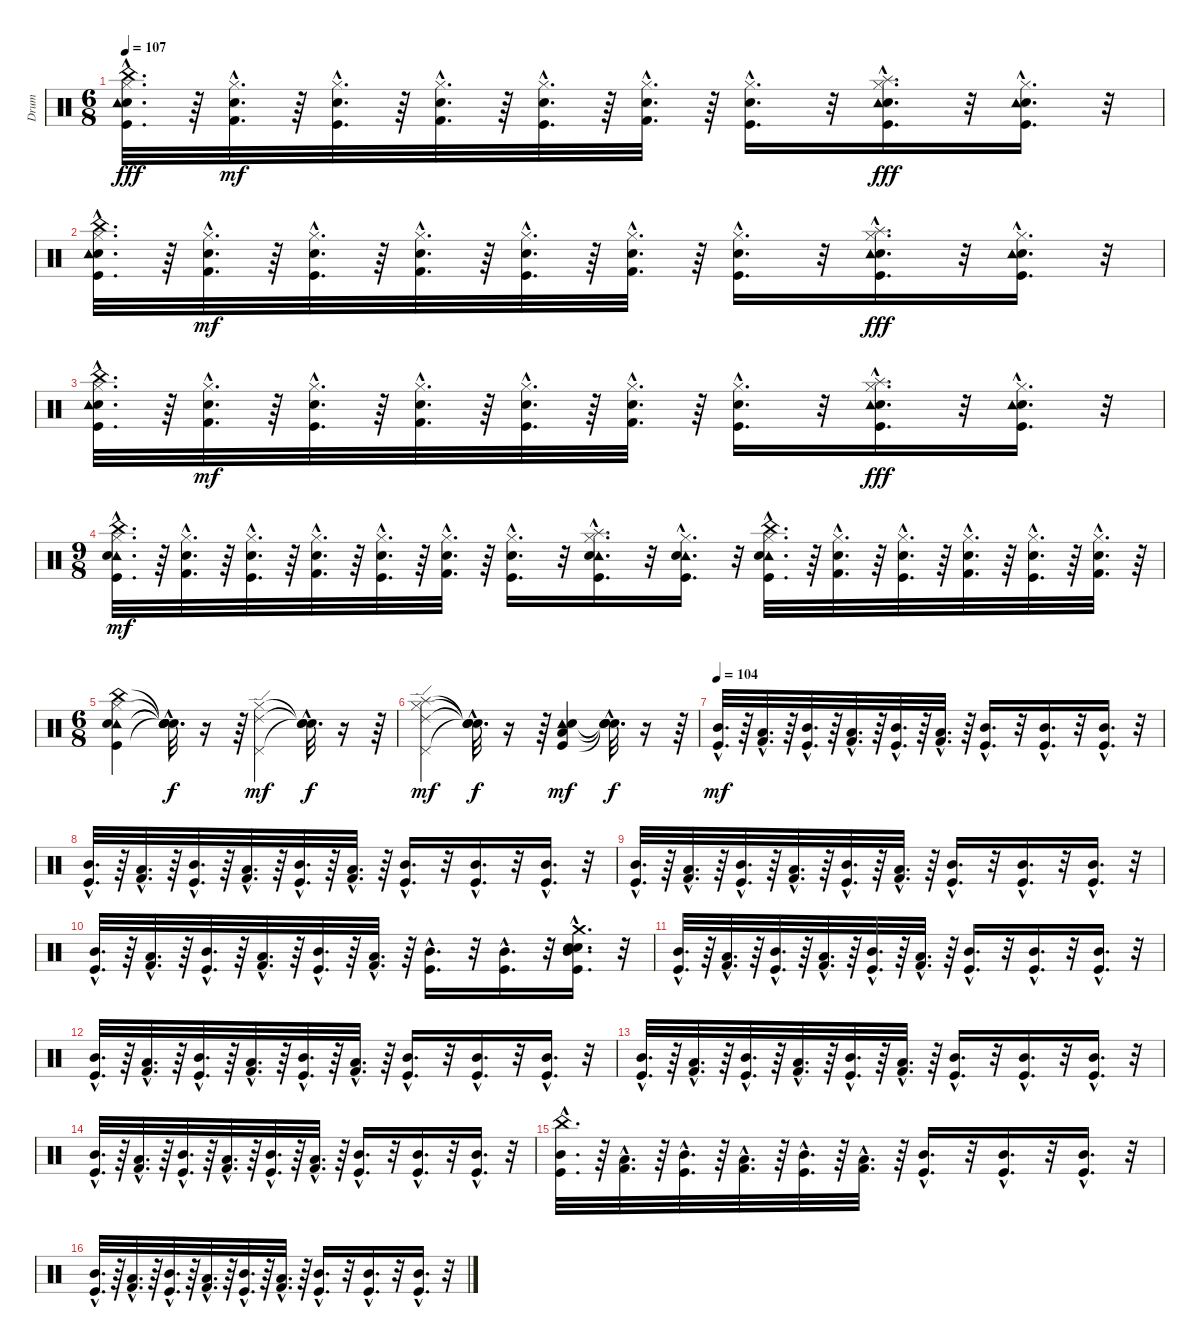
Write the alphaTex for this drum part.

\track ("Drum" "Drum") {instrument percussion}
\staff {score}
\articulation defaults
\ts (6 8)
\tempo 107
\clef neutral
\ks c
("China (hit)"{hac} "Hi-Hat (closed)"{hac} "Kick (hit)"{hac} "Snare (hit) 2"{hac} "Tambourine (hit)"{hac}).32{d dy fff} r.64 ("Hi-Hat (closed)"{hac} "Kick (hit) 2"{hac} "Electric Snare (hit)"{hac}).32{d dy mf} r.64 ("Hi-Hat (closed)"{hac} "Kick (hit)"{hac} "Snare (hit) 2"{hac}).32{d} r.64 ("Hi-Hat (closed)"{hac} "Kick (hit) 2"{hac} "Electric Snare (hit)"{hac}).32{d} r.64 ("Hi-Hat (closed)"{hac} "Kick (hit)"{hac} "Snare (hit) 2"{hac}).32{d} r.64 ("Hi-Hat (closed)"{hac} "Kick (hit) 2"{hac} "Electric Snare (hit)"{hac}).32{d} r.64 ("Hi-Hat (closed)"{hac} "Kick (hit)"{hac} "Snare (hit) 2"{hac}).16{d} r.32 ("Hi-Hat (closed)"{hac} "Kick (hit)"{hac} "Splash (hit)"{hac} "Snare (hit) 2"{hac} "Tambourine (hit)"{hac}).16{d dy fff} r.32 ("Hi-Hat (closed)"{hac} "Kick (hit)"{hac} "Snare (hit) 2"{hac} "Tambourine (hit)"{hac}).16{d} r.32 |
("China (hit)"{hac} "Hi-Hat (closed)"{hac} "Kick (hit)"{hac} "Snare (hit) 2"{hac} "Tambourine (hit)"{hac}).32{d} r.64 ("Hi-Hat (closed)"{hac} "Kick (hit) 2"{hac} "Electric Snare (hit)"{hac}).32{d dy mf} r.64 ("Hi-Hat (closed)"{hac} "Kick (hit)"{hac} "Snare (hit) 2"{hac}).32{d} r.64 ("Hi-Hat (closed)"{hac} "Kick (hit) 2"{hac} "Electric Snare (hit)"{hac}).32{d} r.64 ("Hi-Hat (closed)"{hac} "Kick (hit)"{hac} "Snare (hit) 2"{hac}).32{d} r.64 ("Hi-Hat (closed)"{hac} "Kick (hit) 2"{hac} "Electric Snare (hit)"{hac}).32{d} r.64 ("Hi-Hat (closed)"{hac} "Kick (hit)"{hac} "Snare (hit) 2"{hac}).16{d} r.32 ("Hi-Hat (closed)"{hac} "Kick (hit)"{hac} "Splash (hit)"{hac} "Snare (hit) 2"{hac} "Tambourine (hit)"{hac}).16{d dy fff} r.32 ("Hi-Hat (closed)"{hac} "Kick (hit)"{hac} "Snare (hit) 2"{hac} "Tambourine (hit)"{hac}).16{d} r.32 |
("China (hit)"{hac} "Hi-Hat (closed)"{hac} "Kick (hit)"{hac} "Snare (hit) 2"{hac} "Tambourine (hit)"{hac}).32{d} r.64 ("Hi-Hat (closed)"{hac} "Kick (hit) 2"{hac} "Electric Snare (hit)"{hac}).32{d dy mf} r.64 ("Hi-Hat (closed)"{hac} "Kick (hit)"{hac} "Snare (hit) 2"{hac}).32{d} r.64 ("Hi-Hat (closed)"{hac} "Kick (hit) 2"{hac} "Electric Snare (hit)"{hac}).32{d} r.64 ("Hi-Hat (closed)"{hac} "Kick (hit)"{hac} "Snare (hit) 2"{hac}).32{d} r.64 ("Hi-Hat (closed)"{hac} "Kick (hit) 2"{hac} "Electric Snare (hit)"{hac}).32{d} r.64 ("Hi-Hat (closed)"{hac} "Kick (hit)"{hac} "Snare (hit) 2"{hac}).16{d} r.32 ("Hi-Hat (closed)"{hac} "Kick (hit)"{hac} "Splash (hit)"{hac} "Snare (hit) 2"{hac} "Tambourine (hit)"{hac}).16{d dy fff} r.32 ("Hi-Hat (closed)"{hac} "Kick (hit)"{hac} "Snare (hit) 2"{hac} "Tambourine (hit)"{hac}).16{d} r.32 |
\ts (9 8)
("Tambourine (hit)"{hac} "Snare (hit) 2"{hac} "China (hit)"{hac} "Kick (hit)"{hac} "Hi-Hat (closed)"{hac}).32{d dy mf} r.64 ("Kick (hit) 2"{hac} "Hi-Hat (closed)"{hac} "Electric Snare (hit)"{hac}).32{d} r.64 ("Snare (hit) 2"{hac} "Kick (hit)"{hac} "Hi-Hat (closed)"{hac}).32{d} r.64 ("Electric Snare (hit)"{hac} "Kick (hit) 2"{hac} "Hi-Hat (closed)"{hac}).32{d} r.64 ("Hi-Hat (closed)"{hac} "Kick (hit)"{hac} "Snare (hit) 2"{hac}).32{d} r.64 ("Electric Snare (hit)"{hac} "Kick (hit) 2"{hac} "Hi-Hat (closed)"{hac}).32{d} r.64 ("Snare (hit) 2"{hac} "Hi-Hat (closed)"{hac} "Kick (hit)"{hac}).16{d} r.32 ("Tambourine (hit)"{hac} "Snare (hit) 2"{hac} "Splash (hit)"{hac} "Kick (hit)"{hac} "Hi-Hat (closed)"{hac}).16{d} r.32 ("Tambourine (hit)"{hac} "Snare (hit) 2"{hac} "Kick (hit)"{hac} "Hi-Hat (closed)"{hac}).16{d} r.32 ("China (hit)"{hac} "Hi-Hat (closed)"{hac} "Tambourine (hit)"{hac} "Kick (hit)"{hac} "Snare (hit) 2"{hac}).32{d} r.64 ("Electric Snare (hit)"{hac} "Kick (hit) 2"{hac} "Hi-Hat (closed)"{hac}).32{d} r.64 ("Snare (hit) 2"{hac} "Kick (hit)"{hac} "Hi-Hat (closed)"{hac}).32{d} r.64 ("Electric Snare (hit)"{hac} "Kick (hit) 2"{hac} "Hi-Hat (closed)"{hac}).32{d} r.64 ("Hi-Hat (closed)"{hac} "Kick (hit)"{hac} "Snare (hit) 2"{hac}).32{d} r.64 ("Hi-Hat (closed)"{hac} "Kick (hit) 2"{hac} "Electric Snare (hit)"{hac}).32{d} r.64 |
\ts (6 8)
("Tambourine (hit)" "China (hit)" "Hi-Hat (closed)" "Snare (hit) 2" "Kick (hit)").4 ("Snare (hit)"{hac t} "Snare (hit)"{hac t} "Snare (hit)"{hac t} "Snare (hit)"{hac t} "Snare (hit)"{hac t}).32{d dy f} r.16 r.64 ("Ride (edge) 2" "Pedal Hi-Hat (hit)" "Hi-Hat (closed)").4{dy mf} ("Snare (hit)"{hac t} "Snare (hit)"{hac t} "Snare (hit)"{hac t}).32{d dy f} r.16 r.64 |
("Ride (edge) 2" "Pedal Hi-Hat (hit)" "Hi-Hat (closed)" "Splash (hit)").4{dy mf} ("Snare (hit)"{hac t} "Snare (hit)"{hac t} "Snare (hit)"{hac t} "Snare (hit)"{hac t}).32{d dy f} r.16 r.64 ("Kick (hit)" "Low Tom (hit)" "Tambourine (hit)" "Snare (hit) 2").4{dy mf} ("Snare (hit)"{hac t} "Snare (hit)"{hac t} "Snare (hit)"{hac t} "Snare (hit)"{hac t}).32{d dy f} r.16 r.64 |
\tempo 104
("Mid Tom (hit)"{hac} "Kick (hit)"{hac}).32{d dy mf} r.64 ("Low Tom (hit)"{hac} "Kick (hit) 2"{hac}).32{d} r.64 ("Mid Tom (hit)"{hac} "Kick (hit)"{hac}).32{d} r.64 ("Low Tom (hit)"{hac} "Kick (hit) 2"{hac}).32{d} r.64 ("Mid Tom (hit)"{hac} "Kick (hit)"{hac}).32{d} r.64 ("Low Tom (hit)"{hac} "Kick (hit) 2"{hac}).32{d} r.64 ("Mid Tom (hit)"{hac} "Kick (hit)"{hac}).16{d} r.32 ("Mid Tom (hit)"{hac} "Kick (hit)"{hac}).16{d} r.32 ("Mid Tom (hit)"{hac} "Kick (hit)"{hac}).16{d} r.32 |
("Kick (hit)"{hac} "Mid Tom (hit)"{hac}).32{d} r.64 ("Kick (hit) 2"{hac} "Low Tom (hit)"{hac}).32{d} r.64 ("Kick (hit)"{hac} "Mid Tom (hit)"{hac}).32{d} r.64 ("Kick (hit) 2"{hac} "Low Tom (hit)"{hac}).32{d} r.64 ("Kick (hit)"{hac} "Mid Tom (hit)"{hac}).32{d} r.64 ("Kick (hit) 2"{hac} "Low Tom (hit)"{hac}).32{d} r.64 ("Kick (hit)"{hac} "Mid Tom (hit)"{hac}).16{d} r.32 ("Kick (hit)"{hac} "Mid Tom (hit)"{hac}).16{d} r.32 ("Kick (hit)"{hac} "Mid Tom (hit)"{hac}).16{d} r.32 |
("Mid Tom (hit)"{hac} "Kick (hit)"{hac}).32{d} r.64 ("Low Tom (hit)"{hac} "Kick (hit) 2"{hac}).32{d} r.64 ("Mid Tom (hit)"{hac} "Kick (hit)"{hac}).32{d} r.64 ("Low Tom (hit)"{hac} "Kick (hit) 2"{hac}).32{d} r.64 ("Mid Tom (hit)"{hac} "Kick (hit)"{hac}).32{d} r.64 ("Low Tom (hit)"{hac} "Kick (hit) 2"{hac}).32{d} r.64 ("Mid Tom (hit)"{hac} "Kick (hit)"{hac}).16{d} r.32 ("Mid Tom (hit)"{hac} "Kick (hit)"{hac}).16{d} r.32 ("Mid Tom (hit)"{hac} "Kick (hit)"{hac}).16{d} r.32 |
("Mid Tom (hit)"{hac} "Kick (hit)"{hac}).32{d} r.64 ("Low Tom (hit)"{hac} "Kick (hit) 2"{hac}).32{d} r.64 ("Mid Tom (hit)"{hac} "Kick (hit)"{hac}).32{d} r.64 ("Low Tom (hit)"{hac} "Kick (hit) 2"{hac}).32{d} r.64 ("Mid Tom (hit)"{hac} "Kick (hit)"{hac}).32{d} r.64 ("Low Tom (hit)"{hac} "Kick (hit) 2"{hac}).32{d} r.64 ("Mid Tom (hit)"{hac} "Kick (hit)"{hac}).16{d} r.32 ("Mid Tom (hit)"{hac} "Kick (hit)"{hac}).16{d} r.32 ("Crash medium (hit)"{hac} "Electric Snare (hit)"{hac} "Snare (hit) 2"{hac} "Mid Tom (hit)"{hac} "Kick (hit)"{hac}).16{d} r.32 |
("Kick (hit)"{hac} "Mid Tom (hit)"{hac}).32{d} r.64 ("Kick (hit) 2"{hac} "Low Tom (hit)"{hac}).32{d} r.64 ("Kick (hit)"{hac} "Mid Tom (hit)"{hac}).32{d} r.64 ("Kick (hit) 2"{hac} "Low Tom (hit)"{hac}).32{d} r.64 ("Kick (hit)"{hac} "Mid Tom (hit)"{hac}).32{d} r.64 ("Kick (hit) 2"{hac} "Low Tom (hit)"{hac}).32{d} r.64 ("Kick (hit)"{hac} "Mid Tom (hit)"{hac}).16{d} r.32 ("Kick (hit)"{hac} "Mid Tom (hit)"{hac}).16{d} r.32 ("Kick (hit)"{hac} "Mid Tom (hit)"{hac}).16{d} r.32 |
("Mid Tom (hit)"{hac} "Kick (hit)"{hac}).32{d} r.64 ("Low Tom (hit)"{hac} "Kick (hit) 2"{hac}).32{d} r.64 ("Mid Tom (hit)"{hac} "Kick (hit)"{hac}).32{d} r.64 ("Low Tom (hit)"{hac} "Kick (hit) 2"{hac}).32{d} r.64 ("Mid Tom (hit)"{hac} "Kick (hit)"{hac}).32{d} r.64 ("Low Tom (hit)"{hac} "Kick (hit) 2"{hac}).32{d} r.64 ("Mid Tom (hit)"{hac} "Kick (hit)"{hac}).16{d} r.32 ("Mid Tom (hit)"{hac} "Kick (hit)"{hac}).16{d} r.32 ("Mid Tom (hit)"{hac} "Kick (hit)"{hac}).16{d} r.32 |
("Kick (hit)"{hac} "Mid Tom (hit)"{hac}).32{d} r.64 ("Kick (hit) 2"{hac} "Low Tom (hit)"{hac}).32{d} r.64 ("Kick (hit)"{hac} "Mid Tom (hit)"{hac}).32{d} r.64 ("Kick (hit) 2"{hac} "Low Tom (hit)"{hac}).32{d} r.64 ("Kick (hit)"{hac} "Mid Tom (hit)"{hac}).32{d} r.64 ("Kick (hit) 2"{hac} "Low Tom (hit)"{hac}).32{d} r.64 ("Kick (hit)"{hac} "Mid Tom (hit)"{hac}).16{d} r.32 ("Kick (hit)"{hac} "Mid Tom (hit)"{hac}).16{d} r.32 ("Kick (hit)"{hac} "Mid Tom (hit)"{hac}).16{d} r.32 |
("Kick (hit)"{hac} "Mid Tom (hit)"{hac}).32{d} r.64 ("Kick (hit) 2"{hac} "Low Tom (hit)"{hac}).32{d} r.64 ("Kick (hit)"{hac} "Mid Tom (hit)"{hac}).32{d} r.64 ("Kick (hit) 2"{hac} "Low Tom (hit)"{hac}).32{d} r.64 ("Kick (hit)"{hac} "Mid Tom (hit)"{hac}).32{d} r.64 ("Kick (hit) 2"{hac} "Low Tom (hit)"{hac}).32{d} r.64 ("Kick (hit)"{hac} "Mid Tom (hit)"{hac}).16{d} r.32 ("Kick (hit)"{hac} "Mid Tom (hit)"{hac}).16{d} r.32 ("Kick (hit)"{hac} "Mid Tom (hit)"{hac}).16{d} r.32 |
("Kick (hit)"{hac} "China (hit)"{hac} "Mid Tom (hit)"{hac}).32{d} r.64 ("Kick (hit) 2"{hac} "Low Tom (hit)"{hac}).32{d} r.64 ("Kick (hit)"{hac} "Mid Tom (hit)"{hac}).32{d} r.64 ("Kick (hit) 2"{hac} "Low Tom (hit)"{hac}).32{d} r.64 ("Kick (hit)"{hac} "Mid Tom (hit)"{hac}).32{d} r.64 ("Kick (hit) 2"{hac} "Low Tom (hit)"{hac}).32{d} r.64 ("Kick (hit)"{hac} "Mid Tom (hit)"{hac}).16{d} r.32 ("Kick (hit)"{hac} "Mid Tom (hit)"{hac}).16{d} r.32 ("Kick (hit)"{hac} "Mid Tom (hit)"{hac}).16{d} r.32 |
("Mid Tom (hit)"{hac} "Kick (hit)"{hac}).32{d} r.64 ("Kick (hit) 2"{hac} "Low Tom (hit)"{hac}).32{d} r.64 ("Kick (hit)"{hac} "Mid Tom (hit)"{hac}).32{d} r.64 ("Low Tom (hit)"{hac} "Kick (hit) 2"{hac}).32{d} r.64 ("Mid Tom (hit)"{hac} "Kick (hit)"{hac}).32{d} r.64 ("Low Tom (hit)"{hac} "Kick (hit) 2"{hac}).32{d} r.64 ("Mid Tom (hit)"{hac} "Kick (hit)"{hac}).16{d} r.32 ("Mid Tom (hit)"{hac} "Kick (hit)"{hac}).16{d} r.32 ("Mid Tom (hit)"{hac} "Kick (hit)"{hac}).16{d} r.32
